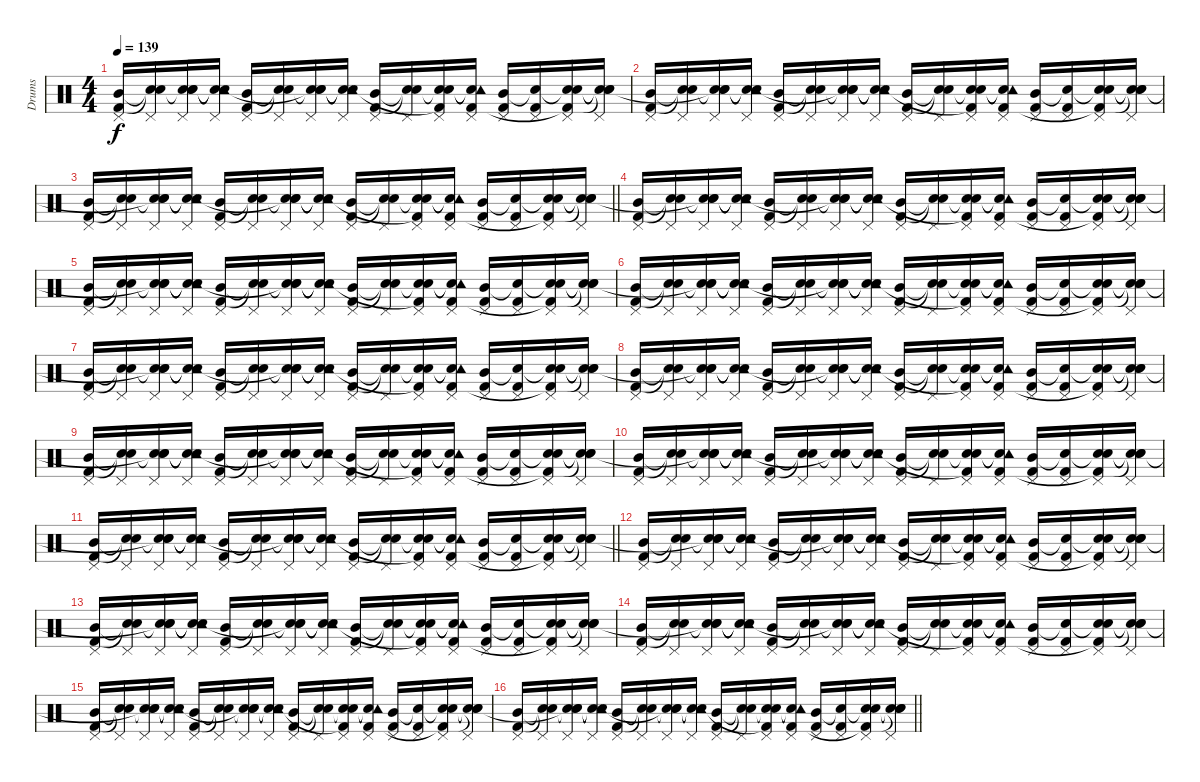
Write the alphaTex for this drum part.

\track ("Drums" "Drums") {instrument percussion}
\staff {score}
\articulation defaults
\ts (4 4)
\tempo 139
\clef neutral
\ks c
("Mid Tom (hit)" "Pedal Hi-Hat (hit)" "Kick (hit) 2").16{dy f} ("Snare (hit)"{t} "Pedal Hi-Hat (hit)" "Snare (hit)"{t}).16 ("Snare (hit)"{t} "Snare (hit) 2" "Pedal Hi-Hat (hit)" "Snare (hit)"{t}).16 ("Snare (hit)"{t} "Tambourine (hit)"{t} "Pedal Hi-Hat (hit)" "Snare (hit)"{t}).16 ("Mid Tom (hit)" "Pedal Hi-Hat (hit)" "Kick (hit) 2").16 ("Snare (hit)"{t} "Pedal Hi-Hat (hit)" "Snare (hit)"{t}).16 ("Snare (hit)"{t} "Snare (hit) 2" "Pedal Hi-Hat (hit)" "Snare (hit)"{t}).16 ("Snare (hit)"{t} "Tambourine (hit)"{t} "Pedal Hi-Hat (hit)" "Snare (hit)"{t}).16 ("Mid Tom (hit)" "Pedal Hi-Hat (hit)" "Kick (hit) 2").16 ("Snare (hit)"{t} "Pedal Hi-Hat (hit)" "Snare (hit)"{t}).16 ("Snare (hit)"{t} "Snare (hit) 2" "Pedal Hi-Hat (hit)" "Kick (hit) 2"{t}).16 ("Snare (hit)"{t} "Tambourine (hit)"{t} "Pedal Hi-Hat (hit)" "Kick (hit) 2").16 ("Mid Tom (hit)" "Pedal Hi-Hat (hit)" "Kick (hit) 2").16 ("Snare (hit)"{t} "Pedal Hi-Hat (hit)" "Kick (hit) 2").16 ("Snare (hit)"{t} "Snare (hit) 2" "Pedal Hi-Hat (hit)" "Kick (hit) 2"{t}).16 ("Snare (hit)"{t} "Snare (hit)"{t} "Pedal Hi-Hat (hit)" "Snare (hit)"{t}).16 |
("Mid Tom (hit)" "Pedal Hi-Hat (hit)" "Kick (hit) 2").16 ("Snare (hit)"{t} "Pedal Hi-Hat (hit)" "Snare (hit)"{t}).16 ("Snare (hit)"{t} "Snare (hit) 2" "Pedal Hi-Hat (hit)" "Snare (hit)"{t}).16 ("Snare (hit)"{t} "Tambourine (hit)"{t} "Pedal Hi-Hat (hit)" "Snare (hit)"{t}).16 ("Mid Tom (hit)" "Pedal Hi-Hat (hit)" "Kick (hit) 2").16 ("Snare (hit)"{t} "Pedal Hi-Hat (hit)" "Snare (hit)"{t}).16 ("Snare (hit)"{t} "Snare (hit) 2" "Pedal Hi-Hat (hit)" "Snare (hit)"{t}).16 ("Snare (hit)"{t} "Tambourine (hit)"{t} "Pedal Hi-Hat (hit)" "Snare (hit)"{t}).16 ("Mid Tom (hit)" "Pedal Hi-Hat (hit)" "Kick (hit) 2").16 ("Snare (hit)"{t} "Pedal Hi-Hat (hit)" "Snare (hit)"{t}).16 ("Snare (hit)"{t} "Snare (hit) 2" "Pedal Hi-Hat (hit)" "Kick (hit) 2"{t}).16 ("Snare (hit)"{t} "Tambourine (hit)"{t} "Pedal Hi-Hat (hit)" "Kick (hit) 2").16 ("Mid Tom (hit)" "Pedal Hi-Hat (hit)" "Kick (hit) 2").16 ("Snare (hit)"{t} "Pedal Hi-Hat (hit)" "Kick (hit) 2").16 ("Snare (hit)"{t} "Snare (hit) 2" "Pedal Hi-Hat (hit)" "Kick (hit) 2"{t}).16 ("Snare (hit)"{t} "Snare (hit)"{t} "Pedal Hi-Hat (hit)" "Snare (hit)"{t}).16 |
\barLineRight lightlight
("Mid Tom (hit)" "Pedal Hi-Hat (hit)" "Kick (hit) 2").16 ("Snare (hit)"{t} "Pedal Hi-Hat (hit)" "Snare (hit)"{t}).16 ("Snare (hit)"{t} "Snare (hit) 2" "Pedal Hi-Hat (hit)" "Snare (hit)"{t}).16 ("Snare (hit)"{t} "Tambourine (hit)"{t} "Pedal Hi-Hat (hit)" "Snare (hit)"{t}).16 ("Mid Tom (hit)" "Pedal Hi-Hat (hit)" "Kick (hit) 2").16 ("Snare (hit)"{t} "Pedal Hi-Hat (hit)" "Snare (hit)"{t}).16 ("Snare (hit)"{t} "Snare (hit) 2" "Pedal Hi-Hat (hit)" "Snare (hit)"{t}).16 ("Snare (hit)"{t} "Tambourine (hit)"{t} "Pedal Hi-Hat (hit)" "Snare (hit)"{t}).16 ("Mid Tom (hit)" "Pedal Hi-Hat (hit)" "Kick (hit) 2").16 ("Snare (hit)"{t} "Pedal Hi-Hat (hit)" "Snare (hit)"{t}).16 ("Snare (hit)"{t} "Snare (hit) 2" "Pedal Hi-Hat (hit)" "Kick (hit) 2"{t}).16 ("Snare (hit)"{t} "Tambourine (hit)"{t} "Pedal Hi-Hat (hit)" "Kick (hit) 2").16 ("Mid Tom (hit)" "Pedal Hi-Hat (hit)" "Kick (hit) 2").16 ("Snare (hit)"{t} "Pedal Hi-Hat (hit)" "Kick (hit) 2").16 ("Snare (hit)"{t} "Snare (hit) 2" "Pedal Hi-Hat (hit)" "Kick (hit) 2"{t}).16 ("Snare (hit)"{t} "Snare (hit)"{t} "Pedal Hi-Hat (hit)" "Snare (hit)"{t}).16 |
("Mid Tom (hit)" "Pedal Hi-Hat (hit)" "Kick (hit) 2").16 ("Snare (hit)"{t} "Pedal Hi-Hat (hit)" "Snare (hit)"{t}).16 ("Snare (hit)"{t} "Snare (hit) 2" "Pedal Hi-Hat (hit)" "Snare (hit)"{t}).16 ("Snare (hit)"{t} "Tambourine (hit)"{t} "Pedal Hi-Hat (hit)" "Snare (hit)"{t}).16 ("Mid Tom (hit)" "Pedal Hi-Hat (hit)" "Kick (hit) 2").16 ("Snare (hit)"{t} "Pedal Hi-Hat (hit)" "Snare (hit)"{t}).16 ("Snare (hit)"{t} "Snare (hit) 2" "Pedal Hi-Hat (hit)" "Snare (hit)"{t}).16 ("Snare (hit)"{t} "Tambourine (hit)"{t} "Pedal Hi-Hat (hit)" "Snare (hit)"{t}).16 ("Mid Tom (hit)" "Pedal Hi-Hat (hit)" "Kick (hit) 2").16 ("Snare (hit)"{t} "Pedal Hi-Hat (hit)" "Snare (hit)"{t}).16 ("Snare (hit)"{t} "Snare (hit) 2" "Pedal Hi-Hat (hit)" "Kick (hit) 2"{t}).16 ("Snare (hit)"{t} "Tambourine (hit)"{t} "Pedal Hi-Hat (hit)" "Kick (hit) 2").16 ("Mid Tom (hit)" "Pedal Hi-Hat (hit)" "Kick (hit) 2").16 ("Snare (hit)"{t} "Pedal Hi-Hat (hit)" "Kick (hit) 2").16 ("Snare (hit)"{t} "Snare (hit) 2" "Pedal Hi-Hat (hit)" "Kick (hit) 2"{t}).16 ("Snare (hit)"{t} "Snare (hit)"{t} "Pedal Hi-Hat (hit)" "Snare (hit)"{t}).16 |
("Mid Tom (hit)" "Pedal Hi-Hat (hit)" "Kick (hit) 2").16 ("Snare (hit)"{t} "Pedal Hi-Hat (hit)" "Snare (hit)"{t}).16 ("Snare (hit)"{t} "Snare (hit) 2" "Pedal Hi-Hat (hit)" "Snare (hit)"{t}).16 ("Snare (hit)"{t} "Tambourine (hit)"{t} "Pedal Hi-Hat (hit)" "Snare (hit)"{t}).16 ("Mid Tom (hit)" "Pedal Hi-Hat (hit)" "Kick (hit) 2").16 ("Snare (hit)"{t} "Pedal Hi-Hat (hit)" "Snare (hit)"{t}).16 ("Snare (hit)"{t} "Snare (hit) 2" "Pedal Hi-Hat (hit)" "Snare (hit)"{t}).16 ("Snare (hit)"{t} "Tambourine (hit)"{t} "Pedal Hi-Hat (hit)" "Snare (hit)"{t}).16 ("Mid Tom (hit)" "Pedal Hi-Hat (hit)" "Kick (hit) 2").16 ("Snare (hit)"{t} "Pedal Hi-Hat (hit)" "Snare (hit)"{t}).16 ("Snare (hit)"{t} "Snare (hit) 2" "Pedal Hi-Hat (hit)" "Kick (hit) 2"{t}).16 ("Snare (hit)"{t} "Tambourine (hit)"{t} "Pedal Hi-Hat (hit)" "Kick (hit) 2").16 ("Mid Tom (hit)" "Pedal Hi-Hat (hit)" "Kick (hit) 2").16 ("Snare (hit)"{t} "Pedal Hi-Hat (hit)" "Kick (hit) 2").16 ("Snare (hit)"{t} "Snare (hit) 2" "Pedal Hi-Hat (hit)" "Kick (hit) 2"{t}).16 ("Snare (hit)"{t} "Snare (hit)"{t} "Pedal Hi-Hat (hit)" "Snare (hit)"{t}).16 |
("Mid Tom (hit)" "Pedal Hi-Hat (hit)" "Kick (hit) 2").16 ("Snare (hit)"{t} "Pedal Hi-Hat (hit)" "Snare (hit)"{t}).16 ("Snare (hit)"{t} "Snare (hit) 2" "Pedal Hi-Hat (hit)" "Snare (hit)"{t}).16 ("Snare (hit)"{t} "Tambourine (hit)"{t} "Pedal Hi-Hat (hit)" "Snare (hit)"{t}).16 ("Mid Tom (hit)" "Pedal Hi-Hat (hit)" "Kick (hit) 2").16 ("Snare (hit)"{t} "Pedal Hi-Hat (hit)" "Snare (hit)"{t}).16 ("Snare (hit)"{t} "Snare (hit) 2" "Pedal Hi-Hat (hit)" "Snare (hit)"{t}).16 ("Snare (hit)"{t} "Tambourine (hit)"{t} "Pedal Hi-Hat (hit)" "Snare (hit)"{t}).16 ("Mid Tom (hit)" "Pedal Hi-Hat (hit)" "Kick (hit) 2").16 ("Snare (hit)"{t} "Pedal Hi-Hat (hit)" "Snare (hit)"{t}).16 ("Snare (hit)"{t} "Snare (hit) 2" "Pedal Hi-Hat (hit)" "Kick (hit) 2"{t}).16 ("Snare (hit)"{t} "Tambourine (hit)"{t} "Pedal Hi-Hat (hit)" "Kick (hit) 2").16 ("Mid Tom (hit)" "Pedal Hi-Hat (hit)" "Kick (hit) 2").16 ("Snare (hit)"{t} "Pedal Hi-Hat (hit)" "Kick (hit) 2").16 ("Snare (hit)"{t} "Snare (hit) 2" "Pedal Hi-Hat (hit)" "Kick (hit) 2"{t}).16 ("Snare (hit)"{t} "Snare (hit)"{t} "Pedal Hi-Hat (hit)" "Snare (hit)"{t}).16 |
("Mid Tom (hit)" "Pedal Hi-Hat (hit)" "Kick (hit) 2").16 ("Snare (hit)"{t} "Pedal Hi-Hat (hit)" "Snare (hit)"{t}).16 ("Snare (hit)"{t} "Snare (hit) 2" "Pedal Hi-Hat (hit)" "Snare (hit)"{t}).16 ("Snare (hit)"{t} "Tambourine (hit)"{t} "Pedal Hi-Hat (hit)" "Snare (hit)"{t}).16 ("Mid Tom (hit)" "Pedal Hi-Hat (hit)" "Kick (hit) 2").16 ("Snare (hit)"{t} "Pedal Hi-Hat (hit)" "Snare (hit)"{t}).16 ("Snare (hit)"{t} "Snare (hit) 2" "Pedal Hi-Hat (hit)" "Snare (hit)"{t}).16 ("Snare (hit)"{t} "Tambourine (hit)"{t} "Pedal Hi-Hat (hit)" "Snare (hit)"{t}).16 ("Mid Tom (hit)" "Pedal Hi-Hat (hit)" "Kick (hit) 2").16 ("Snare (hit)"{t} "Pedal Hi-Hat (hit)" "Snare (hit)"{t}).16 ("Snare (hit)"{t} "Snare (hit) 2" "Pedal Hi-Hat (hit)" "Kick (hit) 2"{t}).16 ("Snare (hit)"{t} "Tambourine (hit)"{t} "Pedal Hi-Hat (hit)" "Kick (hit) 2").16 ("Mid Tom (hit)" "Pedal Hi-Hat (hit)" "Kick (hit) 2").16 ("Snare (hit)"{t} "Pedal Hi-Hat (hit)" "Kick (hit) 2").16 ("Snare (hit)"{t} "Snare (hit) 2" "Pedal Hi-Hat (hit)" "Kick (hit) 2"{t}).16 ("Snare (hit)"{t} "Snare (hit)"{t} "Pedal Hi-Hat (hit)" "Snare (hit)"{t}).16 |
("Mid Tom (hit)" "Pedal Hi-Hat (hit)" "Kick (hit) 2").16 ("Snare (hit)"{t} "Pedal Hi-Hat (hit)" "Snare (hit)"{t}).16 ("Snare (hit)"{t} "Snare (hit) 2" "Pedal Hi-Hat (hit)" "Snare (hit)"{t}).16 ("Snare (hit)"{t} "Tambourine (hit)"{t} "Pedal Hi-Hat (hit)" "Snare (hit)"{t}).16 ("Mid Tom (hit)" "Pedal Hi-Hat (hit)" "Kick (hit) 2").16 ("Snare (hit)"{t} "Pedal Hi-Hat (hit)" "Snare (hit)"{t}).16 ("Snare (hit)"{t} "Snare (hit) 2" "Pedal Hi-Hat (hit)" "Snare (hit)"{t}).16 ("Snare (hit)"{t} "Tambourine (hit)"{t} "Pedal Hi-Hat (hit)" "Snare (hit)"{t}).16 ("Mid Tom (hit)" "Pedal Hi-Hat (hit)" "Kick (hit) 2").16 ("Snare (hit)"{t} "Pedal Hi-Hat (hit)" "Snare (hit)"{t}).16 ("Snare (hit)"{t} "Snare (hit) 2" "Pedal Hi-Hat (hit)" "Kick (hit) 2"{t}).16 ("Snare (hit)"{t} "Tambourine (hit)"{t} "Pedal Hi-Hat (hit)" "Kick (hit) 2").16 ("Mid Tom (hit)" "Pedal Hi-Hat (hit)" "Kick (hit) 2").16 ("Snare (hit)"{t} "Pedal Hi-Hat (hit)" "Kick (hit) 2").16 ("Snare (hit)"{t} "Snare (hit) 2" "Pedal Hi-Hat (hit)" "Kick (hit) 2"{t}).16 ("Snare (hit)"{t} "Snare (hit)"{t} "Pedal Hi-Hat (hit)" "Snare (hit)"{t}).16 |
("Mid Tom (hit)" "Pedal Hi-Hat (hit)" "Kick (hit) 2").16 ("Snare (hit)"{t} "Pedal Hi-Hat (hit)" "Snare (hit)"{t}).16 ("Snare (hit)"{t} "Snare (hit) 2" "Pedal Hi-Hat (hit)" "Snare (hit)"{t}).16 ("Snare (hit)"{t} "Tambourine (hit)"{t} "Pedal Hi-Hat (hit)" "Snare (hit)"{t}).16 ("Mid Tom (hit)" "Pedal Hi-Hat (hit)" "Kick (hit) 2").16 ("Snare (hit)"{t} "Pedal Hi-Hat (hit)" "Snare (hit)"{t}).16 ("Snare (hit)"{t} "Snare (hit) 2" "Pedal Hi-Hat (hit)" "Snare (hit)"{t}).16 ("Snare (hit)"{t} "Tambourine (hit)"{t} "Pedal Hi-Hat (hit)" "Snare (hit)"{t}).16 ("Mid Tom (hit)" "Pedal Hi-Hat (hit)" "Kick (hit) 2").16 ("Snare (hit)"{t} "Pedal Hi-Hat (hit)" "Snare (hit)"{t}).16 ("Snare (hit)"{t} "Snare (hit) 2" "Pedal Hi-Hat (hit)" "Kick (hit) 2"{t}).16 ("Snare (hit)"{t} "Tambourine (hit)"{t} "Pedal Hi-Hat (hit)" "Kick (hit) 2").16 ("Mid Tom (hit)" "Pedal Hi-Hat (hit)" "Kick (hit) 2").16 ("Snare (hit)"{t} "Pedal Hi-Hat (hit)" "Kick (hit) 2").16 ("Snare (hit)"{t} "Snare (hit) 2" "Pedal Hi-Hat (hit)" "Kick (hit) 2"{t}).16 ("Snare (hit)"{t} "Snare (hit)"{t} "Pedal Hi-Hat (hit)" "Snare (hit)"{t}).16 |
("Mid Tom (hit)" "Pedal Hi-Hat (hit)" "Kick (hit) 2").16 ("Snare (hit)"{t} "Pedal Hi-Hat (hit)" "Snare (hit)"{t}).16 ("Snare (hit)"{t} "Snare (hit) 2" "Pedal Hi-Hat (hit)" "Snare (hit)"{t}).16 ("Snare (hit)"{t} "Tambourine (hit)"{t} "Pedal Hi-Hat (hit)" "Snare (hit)"{t}).16 ("Mid Tom (hit)" "Pedal Hi-Hat (hit)" "Kick (hit) 2").16 ("Snare (hit)"{t} "Pedal Hi-Hat (hit)" "Snare (hit)"{t}).16 ("Snare (hit)"{t} "Snare (hit) 2" "Pedal Hi-Hat (hit)" "Snare (hit)"{t}).16 ("Snare (hit)"{t} "Tambourine (hit)"{t} "Pedal Hi-Hat (hit)" "Snare (hit)"{t}).16 ("Mid Tom (hit)" "Pedal Hi-Hat (hit)" "Kick (hit) 2").16 ("Snare (hit)"{t} "Pedal Hi-Hat (hit)" "Snare (hit)"{t}).16 ("Snare (hit)"{t} "Snare (hit) 2" "Pedal Hi-Hat (hit)" "Kick (hit) 2"{t}).16 ("Snare (hit)"{t} "Tambourine (hit)"{t} "Pedal Hi-Hat (hit)" "Kick (hit) 2").16 ("Mid Tom (hit)" "Pedal Hi-Hat (hit)" "Kick (hit) 2").16 ("Snare (hit)"{t} "Pedal Hi-Hat (hit)" "Kick (hit) 2").16 ("Snare (hit)"{t} "Snare (hit) 2" "Pedal Hi-Hat (hit)" "Kick (hit) 2"{t}).16 ("Snare (hit)"{t} "Snare (hit)"{t} "Pedal Hi-Hat (hit)" "Snare (hit)"{t}).16 |
\barLineRight lightlight
("Mid Tom (hit)" "Pedal Hi-Hat (hit)" "Kick (hit) 2").16 ("Snare (hit)"{t} "Pedal Hi-Hat (hit)" "Snare (hit)"{t}).16 ("Snare (hit)"{t} "Snare (hit) 2" "Pedal Hi-Hat (hit)" "Snare (hit)"{t}).16 ("Snare (hit)"{t} "Tambourine (hit)"{t} "Pedal Hi-Hat (hit)" "Snare (hit)"{t}).16 ("Mid Tom (hit)" "Pedal Hi-Hat (hit)" "Kick (hit) 2").16 ("Snare (hit)"{t} "Pedal Hi-Hat (hit)" "Snare (hit)"{t}).16 ("Snare (hit)"{t} "Snare (hit) 2" "Pedal Hi-Hat (hit)" "Snare (hit)"{t}).16 ("Snare (hit)"{t} "Tambourine (hit)"{t} "Pedal Hi-Hat (hit)" "Snare (hit)"{t}).16 ("Mid Tom (hit)" "Pedal Hi-Hat (hit)" "Kick (hit) 2").16 ("Snare (hit)"{t} "Pedal Hi-Hat (hit)" "Snare (hit)"{t}).16 ("Snare (hit)"{t} "Snare (hit) 2" "Pedal Hi-Hat (hit)" "Kick (hit) 2"{t}).16 ("Snare (hit)"{t} "Tambourine (hit)"{t} "Pedal Hi-Hat (hit)" "Kick (hit) 2").16 ("Mid Tom (hit)" "Pedal Hi-Hat (hit)" "Kick (hit) 2").16 ("Snare (hit)"{t} "Pedal Hi-Hat (hit)" "Kick (hit) 2").16 ("Snare (hit)"{t} "Snare (hit) 2" "Pedal Hi-Hat (hit)" "Kick (hit) 2"{t}).16 ("Snare (hit)"{t} "Snare (hit)"{t} "Pedal Hi-Hat (hit)" "Snare (hit)"{t}).16 |
("Mid Tom (hit)" "Pedal Hi-Hat (hit)" "Kick (hit) 2").16 ("Snare (hit)"{t} "Pedal Hi-Hat (hit)" "Snare (hit)"{t}).16 ("Snare (hit)"{t} "Snare (hit) 2" "Pedal Hi-Hat (hit)" "Snare (hit)"{t}).16 ("Snare (hit)"{t} "Tambourine (hit)"{t} "Pedal Hi-Hat (hit)" "Snare (hit)"{t}).16 ("Mid Tom (hit)" "Pedal Hi-Hat (hit)" "Kick (hit) 2").16 ("Snare (hit)"{t} "Pedal Hi-Hat (hit)" "Snare (hit)"{t}).16 ("Snare (hit)"{t} "Snare (hit) 2" "Pedal Hi-Hat (hit)" "Snare (hit)"{t}).16 ("Snare (hit)"{t} "Tambourine (hit)"{t} "Pedal Hi-Hat (hit)" "Snare (hit)"{t}).16 ("Mid Tom (hit)" "Pedal Hi-Hat (hit)" "Kick (hit) 2").16 ("Snare (hit)"{t} "Pedal Hi-Hat (hit)" "Snare (hit)"{t}).16 ("Snare (hit)"{t} "Snare (hit) 2" "Pedal Hi-Hat (hit)" "Kick (hit) 2"{t}).16 ("Snare (hit)"{t} "Tambourine (hit)"{t} "Pedal Hi-Hat (hit)" "Kick (hit) 2").16 ("Mid Tom (hit)" "Pedal Hi-Hat (hit)" "Kick (hit) 2").16 ("Snare (hit)"{t} "Pedal Hi-Hat (hit)" "Kick (hit) 2").16 ("Snare (hit)"{t} "Snare (hit) 2" "Pedal Hi-Hat (hit)" "Kick (hit) 2"{t}).16 ("Snare (hit)"{t} "Snare (hit)"{t} "Pedal Hi-Hat (hit)" "Snare (hit)"{t}).16 |
("Mid Tom (hit)" "Pedal Hi-Hat (hit)" "Kick (hit) 2").16 ("Snare (hit)"{t} "Pedal Hi-Hat (hit)" "Snare (hit)"{t}).16 ("Snare (hit)"{t} "Snare (hit) 2" "Pedal Hi-Hat (hit)" "Snare (hit)"{t}).16 ("Snare (hit)"{t} "Tambourine (hit)"{t} "Pedal Hi-Hat (hit)" "Snare (hit)"{t}).16 ("Mid Tom (hit)" "Pedal Hi-Hat (hit)" "Kick (hit) 2").16 ("Snare (hit)"{t} "Pedal Hi-Hat (hit)" "Snare (hit)"{t}).16 ("Snare (hit)"{t} "Snare (hit) 2" "Pedal Hi-Hat (hit)" "Snare (hit)"{t}).16 ("Snare (hit)"{t} "Tambourine (hit)"{t} "Pedal Hi-Hat (hit)" "Snare (hit)"{t}).16 ("Mid Tom (hit)" "Pedal Hi-Hat (hit)" "Kick (hit) 2").16 ("Snare (hit)"{t} "Pedal Hi-Hat (hit)" "Snare (hit)"{t}).16 ("Snare (hit)"{t} "Snare (hit) 2" "Pedal Hi-Hat (hit)" "Kick (hit) 2"{t}).16 ("Snare (hit)"{t} "Tambourine (hit)"{t} "Pedal Hi-Hat (hit)" "Kick (hit) 2").16 ("Mid Tom (hit)" "Pedal Hi-Hat (hit)" "Kick (hit) 2").16 ("Snare (hit)"{t} "Pedal Hi-Hat (hit)" "Kick (hit) 2").16 ("Snare (hit)"{t} "Snare (hit) 2" "Pedal Hi-Hat (hit)" "Kick (hit) 2"{t}).16 ("Snare (hit)"{t} "Snare (hit)"{t} "Pedal Hi-Hat (hit)" "Snare (hit)"{t}).16 |
("Mid Tom (hit)" "Pedal Hi-Hat (hit)" "Kick (hit) 2").16 ("Snare (hit)"{t} "Pedal Hi-Hat (hit)" "Snare (hit)"{t}).16 ("Snare (hit)"{t} "Snare (hit) 2" "Pedal Hi-Hat (hit)" "Snare (hit)"{t}).16 ("Snare (hit)"{t} "Tambourine (hit)"{t} "Pedal Hi-Hat (hit)" "Snare (hit)"{t}).16 ("Mid Tom (hit)" "Pedal Hi-Hat (hit)" "Kick (hit) 2").16 ("Snare (hit)"{t} "Pedal Hi-Hat (hit)" "Snare (hit)"{t}).16 ("Snare (hit)"{t} "Snare (hit) 2" "Pedal Hi-Hat (hit)" "Snare (hit)"{t}).16 ("Snare (hit)"{t} "Tambourine (hit)"{t} "Pedal Hi-Hat (hit)" "Snare (hit)"{t}).16 ("Mid Tom (hit)" "Pedal Hi-Hat (hit)" "Kick (hit) 2").16 ("Snare (hit)"{t} "Pedal Hi-Hat (hit)" "Snare (hit)"{t}).16 ("Snare (hit)"{t} "Snare (hit) 2" "Pedal Hi-Hat (hit)" "Kick (hit) 2"{t}).16 ("Snare (hit)"{t} "Tambourine (hit)"{t} "Pedal Hi-Hat (hit)" "Kick (hit) 2").16 ("Mid Tom (hit)" "Pedal Hi-Hat (hit)" "Kick (hit) 2").16 ("Snare (hit)"{t} "Pedal Hi-Hat (hit)" "Kick (hit) 2").16 ("Snare (hit)"{t} "Snare (hit) 2" "Pedal Hi-Hat (hit)" "Kick (hit) 2"{t}).16 ("Snare (hit)"{t} "Snare (hit)"{t} "Pedal Hi-Hat (hit)" "Snare (hit)"{t}).16 |
("Mid Tom (hit)" "Pedal Hi-Hat (hit)" "Kick (hit) 2").16 ("Snare (hit)"{t} "Pedal Hi-Hat (hit)" "Snare (hit)"{t}).16 ("Snare (hit)"{t} "Snare (hit) 2" "Pedal Hi-Hat (hit)" "Snare (hit)"{t}).16 ("Snare (hit)"{t} "Tambourine (hit)"{t} "Pedal Hi-Hat (hit)" "Snare (hit)"{t}).16 ("Mid Tom (hit)" "Pedal Hi-Hat (hit)" "Kick (hit) 2").16 ("Snare (hit)"{t} "Pedal Hi-Hat (hit)" "Snare (hit)"{t}).16 ("Snare (hit)"{t} "Snare (hit) 2" "Pedal Hi-Hat (hit)" "Snare (hit)"{t}).16 ("Snare (hit)"{t} "Tambourine (hit)"{t} "Pedal Hi-Hat (hit)" "Snare (hit)"{t}).16 ("Mid Tom (hit)" "Pedal Hi-Hat (hit)" "Kick (hit) 2").16 ("Snare (hit)"{t} "Pedal Hi-Hat (hit)" "Snare (hit)"{t}).16 ("Snare (hit)"{t} "Snare (hit) 2" "Pedal Hi-Hat (hit)" "Kick (hit) 2"{t}).16 ("Snare (hit)"{t} "Tambourine (hit)"{t} "Pedal Hi-Hat (hit)" "Kick (hit) 2").16 ("Mid Tom (hit)" "Pedal Hi-Hat (hit)" "Kick (hit) 2").16 ("Snare (hit)"{t} "Pedal Hi-Hat (hit)" "Kick (hit) 2").16 ("Snare (hit)"{t} "Snare (hit) 2" "Pedal Hi-Hat (hit)" "Kick (hit) 2"{t}).16 ("Snare (hit)"{t} "Snare (hit)"{t} "Pedal Hi-Hat (hit)" "Snare (hit)"{t}).16 |
\barLineRight lightlight
("Mid Tom (hit)" "Pedal Hi-Hat (hit)" "Kick (hit) 2").16 ("Snare (hit)"{t} "Pedal Hi-Hat (hit)" "Snare (hit)"{t}).16 ("Snare (hit)"{t} "Snare (hit) 2" "Pedal Hi-Hat (hit)" "Snare (hit)"{t}).16 ("Snare (hit)"{t} "Tambourine (hit)"{t} "Pedal Hi-Hat (hit)" "Snare (hit)"{t}).16 ("Mid Tom (hit)" "Pedal Hi-Hat (hit)" "Kick (hit) 2").16 ("Snare (hit)"{t} "Pedal Hi-Hat (hit)" "Snare (hit)"{t}).16 ("Snare (hit)"{t} "Snare (hit) 2" "Pedal Hi-Hat (hit)" "Snare (hit)"{t}).16 ("Snare (hit)"{t} "Tambourine (hit)"{t} "Pedal Hi-Hat (hit)" "Snare (hit)"{t}).16 ("Mid Tom (hit)" "Pedal Hi-Hat (hit)" "Kick (hit) 2").16 ("Snare (hit)"{t} "Pedal Hi-Hat (hit)" "Snare (hit)"{t}).16 ("Snare (hit)"{t} "Snare (hit) 2" "Pedal Hi-Hat (hit)" "Kick (hit) 2"{t}).16 ("Snare (hit)"{t} "Tambourine (hit)"{t} "Pedal Hi-Hat (hit)" "Kick (hit) 2").16 ("Mid Tom (hit)" "Pedal Hi-Hat (hit)" "Kick (hit) 2").16 ("Snare (hit)"{t} "Pedal Hi-Hat (hit)" "Kick (hit) 2").16 ("Snare (hit)"{t} "Snare (hit) 2" "Pedal Hi-Hat (hit)" "Kick (hit) 2"{t}).16 ("Snare (hit)"{t} "Snare (hit)"{t} "Pedal Hi-Hat (hit)" "Snare (hit)"{t}).16
